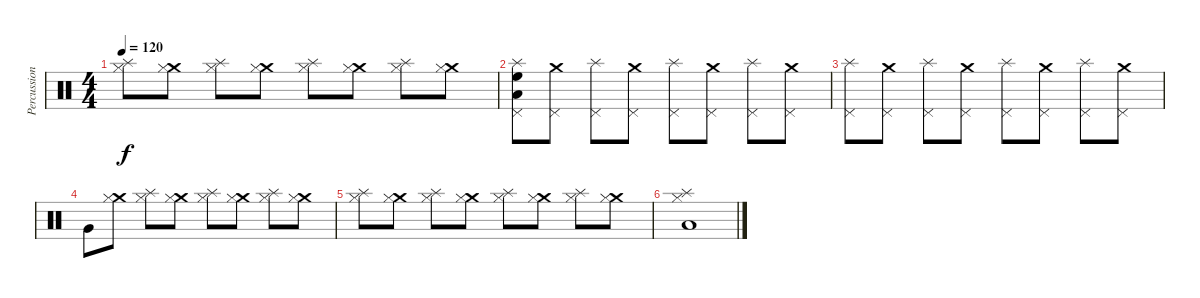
\track ("Percussion" "Percussion") {instrument percussion}
\staff {score}
\articulation defaults
\ts (4 4)
\tempo 120
\clef neutral
\ks c
("Splash (hit)" "Hi-Hat (closed)").8{dy f} ("Crash medium (hit)" "Hi-Hat (closed)").8 ("Splash (hit)" "Hi-Hat (closed)").8 ("Crash medium (hit)" "Hi-Hat (closed)").8 ("Splash (hit)" "Hi-Hat (closed)").8 ("Crash medium (hit)" "Hi-Hat (closed)").8 ("Splash (hit)" "Hi-Hat (closed)").8 ("Crash medium (hit)" "Hi-Hat (closed)").8 |
("Splash (hit)" "Pedal Hi-Hat (hit)" "High Floor Tom (hit)" "Low Tom (hit)").8 ("Crash medium (hit)" "Pedal Hi-Hat (hit)").8 ("Splash (hit)" "Pedal Hi-Hat (hit)").8 ("Crash medium (hit)" "Pedal Hi-Hat (hit)").8 ("Splash (hit)" "Pedal Hi-Hat (hit)").8 ("Crash medium (hit)" "Pedal Hi-Hat (hit)").8 ("Splash (hit)" "Pedal Hi-Hat (hit)").8 ("Crash medium (hit)" "Pedal Hi-Hat (hit)").8 |
("Splash (hit)" "Pedal Hi-Hat (hit)").8 ("Crash medium (hit)" "Pedal Hi-Hat (hit)").8 ("Splash (hit)" "Pedal Hi-Hat (hit)").8 ("Crash medium (hit)" "Pedal Hi-Hat (hit)").8 ("Splash (hit)" "Pedal Hi-Hat (hit)").8 ("Crash medium (hit)" "Pedal Hi-Hat (hit)").8 ("Splash (hit)" "Pedal Hi-Hat (hit)").8 ("Crash medium (hit)" "Pedal Hi-Hat (hit)").8 |
"Very Low Tom (hit)".8 ("Crash medium (hit)" "Hi-Hat (closed)").8 ("Splash (hit)" "Hi-Hat (closed)").8 ("Crash medium (hit)" "Hi-Hat (closed)").8 ("Splash (hit)" "Hi-Hat (closed)").8 ("Crash medium (hit)" "Hi-Hat (closed)").8 ("Splash (hit)" "Hi-Hat (closed)").8 ("Crash medium (hit)" "Hi-Hat (closed)").8 |
("Splash (hit)" "Hi-Hat (closed)").8 ("Crash medium (hit)" "Hi-Hat (closed)").8 ("Splash (hit)" "Hi-Hat (closed)").8 ("Crash medium (hit)" "Hi-Hat (closed)").8 ("Splash (hit)" "Hi-Hat (closed)").8 ("Crash medium (hit)" "Hi-Hat (closed)").8 ("Splash (hit)" "Hi-Hat (closed)").8 ("Crash medium (hit)" "Hi-Hat (closed)").8 |
("Splash (hit)" "Low Floor Tom (hit)" "Hi-Hat (closed)").1
